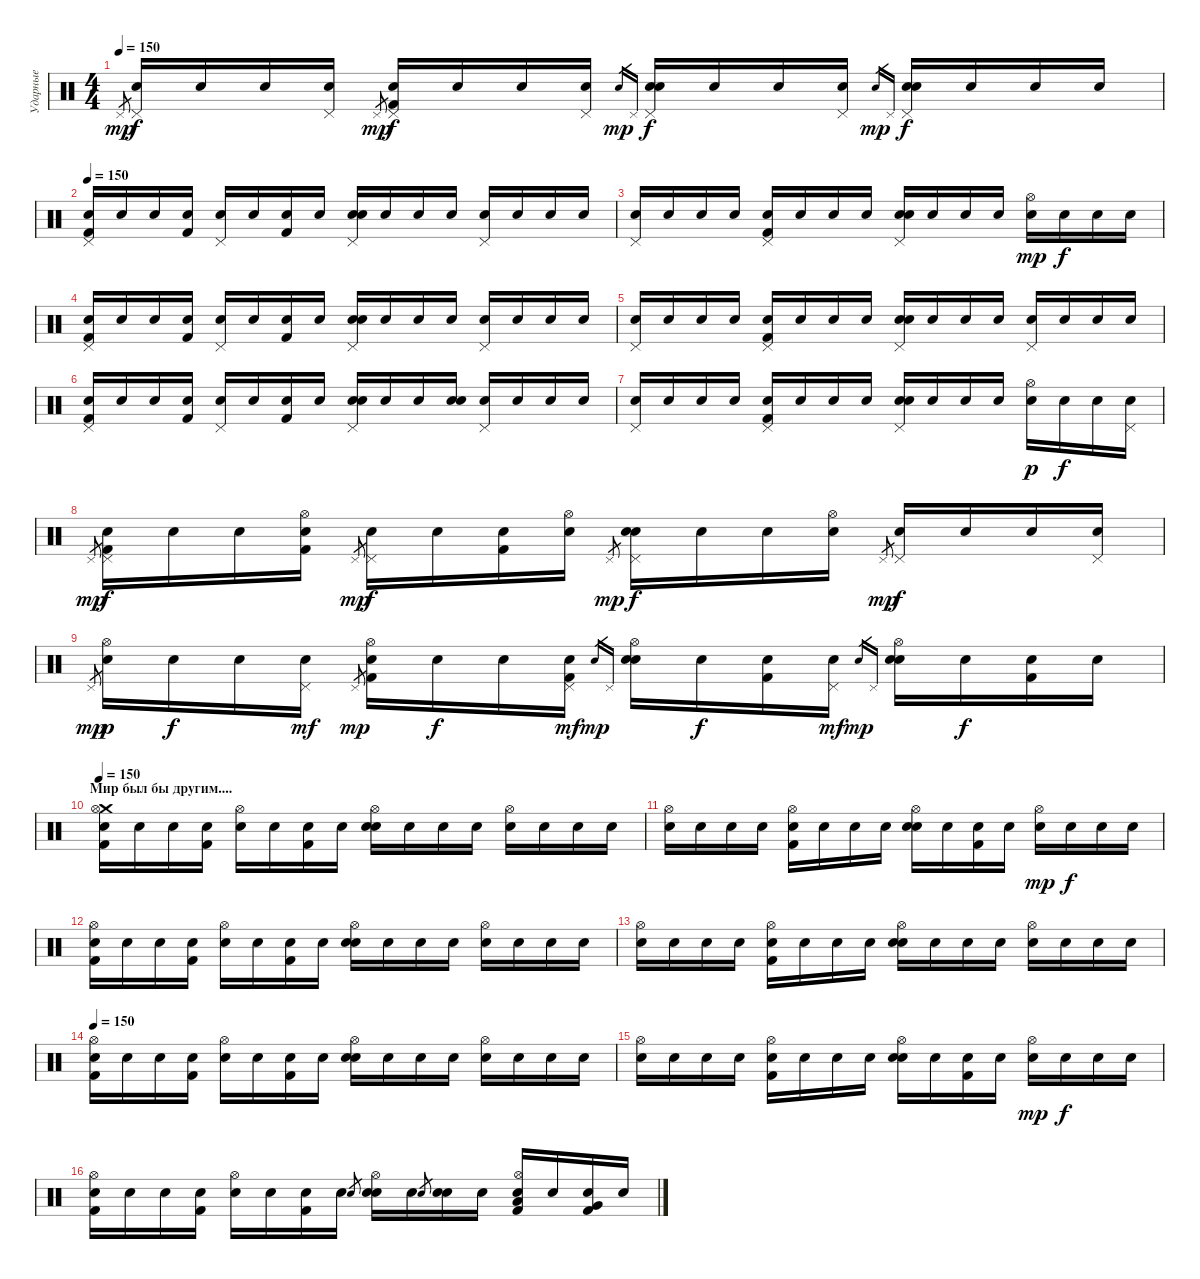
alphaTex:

\track ("Ударные" "Ударные") {instrument percussion}
\staff {score}
\articulation defaults
\ts (4 4)
\tempo 150
\clef neutral
\ks c "Pedal Hi-Hat (hit)".8{gr dy mp}
("Pedal Hi-Hat (hit)" "Snare (hit)"{x}).16{dy f} "Snare (hit)"{x}.16 "Snare (hit)"{x}.16 ("Pedal Hi-Hat (hit)" "Snare (hit)"{x}).16 "Pedal Hi-Hat (hit)".8{gr dy mp} ("Kick (hit) 2" "Pedal Hi-Hat (hit)" "Snare (hit)"{x}).16{dy f} "Snare (hit)"{x}.16 "Snare (hit)"{x}.16 ("Pedal Hi-Hat (hit)" "Snare (hit)"{x}).16 "Snare (hit) 2".16{gr dy mp} "Pedal Hi-Hat (hit)".16{gr} ("Snare (hit) 2" "Pedal Hi-Hat (hit)" "Snare (hit)"{x}).16{dy f} "Snare (hit)"{x}.16 "Snare (hit)"{x}.16 ("Pedal Hi-Hat (hit)" "Snare (hit)"{x}).16 "Snare (hit) 2".16{gr dy mp} "Pedal Hi-Hat (hit)".16{gr} ("Snare (hit) 2" "Pedal Hi-Hat (hit)" "Snare (hit)"{x}).16{dy f} "Snare (hit)"{x}.16 "Snare (hit)"{x}.16 "Snare (hit)"{x}.16 |
\tempo 150
("Kick (hit) 2" "Pedal Hi-Hat (hit)" "Snare (hit)"{x}).16 "Snare (hit)"{x}.16 "Snare (hit)"{x}.16 ("Kick (hit) 2" "Snare (hit)"{x}).16 ("Pedal Hi-Hat (hit)" "Snare (hit)"{x}).16 "Snare (hit)"{x}.16 ("Kick (hit) 2" "Snare (hit)"{x}).16 "Snare (hit)"{x}.16 ("Snare (hit) 2" "Pedal Hi-Hat (hit)" "Snare (hit)"{x}).16 "Snare (hit)"{x}.16 "Snare (hit)"{x}.16 "Snare (hit)"{x}.16 ("Pedal Hi-Hat (hit)" "Snare (hit)"{x}).16 "Snare (hit)"{x}.16 "Snare (hit)"{x}.16 "Snare (hit)"{x}.16 |
("Pedal Hi-Hat (hit)" "Snare (hit)"{x}).16 "Snare (hit)"{x}.16 "Snare (hit)"{x}.16 "Snare (hit)"{x}.16 ("Kick (hit) 2" "Pedal Hi-Hat (hit)" "Snare (hit)"{x}).16 "Snare (hit)"{x}.16 "Snare (hit)"{x}.16 "Snare (hit)"{x}.16 ("Snare (hit) 2" "Pedal Hi-Hat (hit)" "Snare (hit)"{x}).16 "Snare (hit)"{x}.16 "Snare (hit)"{x}.16 "Snare (hit)"{x}.16 ("Hi-Hat (open)" "Snare (hit)"{x}).16{dy mp} "Snare (hit)"{x}.16{dy f} "Snare (hit)"{x}.16 "Snare (hit)"{x}.16 |
("Kick (hit) 2" "Pedal Hi-Hat (hit)" "Snare (hit)"{x}).16 "Snare (hit)"{x}.16 "Snare (hit)"{x}.16 ("Kick (hit) 2" "Snare (hit)"{x}).16 ("Pedal Hi-Hat (hit)" "Snare (hit)"{x}).16 "Snare (hit)"{x}.16 ("Kick (hit) 2" "Snare (hit)"{x}).16 "Snare (hit)"{x}.16 ("Snare (hit) 2" "Pedal Hi-Hat (hit)" "Snare (hit)"{x}).16 "Snare (hit)"{x}.16 "Snare (hit)"{x}.16 "Snare (hit)"{x}.16 ("Pedal Hi-Hat (hit)" "Snare (hit)"{x}).16 "Snare (hit)"{x}.16 "Snare (hit)"{x}.16 "Snare (hit)"{x}.16 |
("Pedal Hi-Hat (hit)" "Snare (hit)"{x}).16 "Snare (hit)"{x}.16 "Snare (hit)"{x}.16 "Snare (hit)"{x}.16 ("Kick (hit) 2" "Pedal Hi-Hat (hit)" "Snare (hit)"{x}).16 "Snare (hit)"{x}.16 "Snare (hit)"{x}.16 "Snare (hit)"{x}.16 ("Snare (hit) 2" "Pedal Hi-Hat (hit)" "Snare (hit)"{x}).16 "Snare (hit)"{x}.16 "Snare (hit)"{x}.16 "Snare (hit)"{x}.16 ("Pedal Hi-Hat (hit)" "Snare (hit)"{x}).16 "Snare (hit)"{x}.16 "Snare (hit)"{x}.16 "Snare (hit)"{x}.16 |
("Kick (hit) 2" "Pedal Hi-Hat (hit)" "Snare (hit)"{x}).16 "Snare (hit)"{x}.16 "Snare (hit)"{x}.16 ("Kick (hit) 2" "Snare (hit)"{x}).16 ("Pedal Hi-Hat (hit)" "Snare (hit)"{x}).16 "Snare (hit)"{x}.16 ("Kick (hit) 2" "Snare (hit)"{x}).16 "Snare (hit)"{x}.16 ("Snare (hit) 2" "Pedal Hi-Hat (hit)" "Snare (hit)"{x}).16 "Snare (hit)"{x}.16 "Snare (hit)"{x}.16 ("Snare (hit) 2" "Snare (hit)"{x}).16 ("Pedal Hi-Hat (hit)" "Snare (hit)"{x}).16 "Snare (hit)"{x}.16 "Snare (hit)"{x}.16 "Snare (hit)"{x}.16 |
("Pedal Hi-Hat (hit)" "Snare (hit)"{x}).16 "Snare (hit)"{x}.16 "Snare (hit)"{x}.16 "Snare (hit)"{x}.16 ("Kick (hit) 2" "Pedal Hi-Hat (hit)" "Snare (hit)"{x}).16 "Snare (hit)"{x}.16 "Snare (hit)"{x}.16 "Snare (hit)"{x}.16 ("Snare (hit) 2" "Pedal Hi-Hat (hit)" "Snare (hit)"{x}).16 "Snare (hit)"{x}.16 "Snare (hit)"{x}.16 "Snare (hit)"{x}.16 ("Hi-Hat (open)" "Snare (hit)"{x}).16{dy p} "Snare (hit)"{x}.16{dy f} "Snare (hit)"{x}.16 ("Pedal Hi-Hat (hit)" "Snare (hit)"{x}).16 |
"Pedal Hi-Hat (hit)".8{gr dy mp} ("Kick (hit) 2" "Pedal Hi-Hat (hit)" "Snare (hit)"{x}).16{dy f} "Snare (hit)"{x}.16 "Snare (hit)"{x}.16 ("Kick (hit) 2" "Hi-Hat (open)" "Snare (hit)"{x}).16 "Pedal Hi-Hat (hit)".8{gr dy mp} ("Pedal Hi-Hat (hit)" "Snare (hit)"{x}).16{dy f} "Snare (hit)"{x}.16 ("Kick (hit) 2" "Snare (hit)"{x}).16 ("Hi-Hat (open)" "Snare (hit)"{x}).16 "Pedal Hi-Hat (hit)".8{gr dy mp} ("Snare (hit) 2" "Pedal Hi-Hat (hit)" "Snare (hit)"{x}).16{dy f} "Snare (hit)"{x}.16 "Snare (hit)"{x}.16 ("Hi-Hat (open)" "Snare (hit)"{x}).16 "Pedal Hi-Hat (hit)".8{gr dy mp} ("Pedal Hi-Hat (hit)" "Snare (hit)"{x}).16{dy f} "Snare (hit)"{x}.16 "Snare (hit)"{x}.16 ("Pedal Hi-Hat (hit)" "Snare (hit)"{x}).16 |
"Pedal Hi-Hat (hit)".8{gr dy mp} ("Hi-Hat (open)" "Snare (hit)"{x}).16{dy p} "Snare (hit)"{x}.16{dy f} "Snare (hit)"{x}.16 ("Pedal Hi-Hat (hit)" "Snare (hit)"{x}).16{dy mf} "Pedal Hi-Hat (hit)".8{gr dy mp} ("Kick (hit) 2" "Hi-Hat (open)" "Snare (hit)"{x}).16 "Snare (hit)"{x}.16{dy f} "Snare (hit)"{x}.16 ("Kick (hit) 2" "Pedal Hi-Hat (hit)" "Snare (hit)"{x}).16{dy mf} "Snare (hit) 2".16{gr dy mp} "Pedal Hi-Hat (hit)".16{gr} ("Snare (hit) 2" "Hi-Hat (open)" "Snare (hit)"{x}).16 "Snare (hit)"{x}.16{dy f} ("Kick (hit) 2" "Snare (hit)"{x}).16 ("Pedal Hi-Hat (hit)" "Snare (hit)"{x}).16{dy mf} "Snare (hit) 2".16{gr dy mp} "Pedal Hi-Hat (hit)".16{gr} ("Snare (hit) 2" "Hi-Hat (open)" "Snare (hit)"{x}).16 "Snare (hit)"{x}.16{dy f} ("Kick (hit) 2" "Snare (hit)"{x}).16 "Snare (hit)"{x}.16 |
\section ("" "Мир был бы другим....")
\tempo 150
("Crash medium (hit)" "Kick (hit) 2" "Hi-Hat (open)" "Snare (hit)"{x}).16 "Snare (hit)"{x}.16 "Snare (hit)"{x}.16 ("Kick (hit) 2" "Snare (hit)"{x}).16 ("Hi-Hat (open)" "Snare (hit)"{x}).16 "Snare (hit)"{x}.16 ("Kick (hit) 2" "Snare (hit)"{x}).16 "Snare (hit)"{x}.16 ("Snare (hit) 2" "Hi-Hat (open)" "Snare (hit)"{x}).16 "Snare (hit)"{x}.16 "Snare (hit)"{x}.16 "Snare (hit)"{x}.16 ("Hi-Hat (open)" "Snare (hit)"{x}).16 "Snare (hit)"{x}.16 "Snare (hit)"{x}.16 "Snare (hit)"{x}.16 |
("Hi-Hat (open)" "Snare (hit)"{x}).16 "Snare (hit)"{x}.16 "Snare (hit)"{x}.16 "Snare (hit)"{x}.16 ("Kick (hit) 2" "Hi-Hat (open)" "Snare (hit)"{x}).16 "Snare (hit)"{x}.16 "Snare (hit)"{x}.16 "Snare (hit)"{x}.16 ("Snare (hit) 2" "Hi-Hat (open)" "Snare (hit)"{x}).16 "Snare (hit)"{x}.16 ("Kick (hit) 2" "Snare (hit)"{x}).16 "Snare (hit)"{x}.16 ("Hi-Hat (open)" "Snare (hit)"{x}).16{dy mp} "Snare (hit)"{x}.16{dy f} "Snare (hit)"{x}.16 "Snare (hit)"{x}.16 |
("Kick (hit) 2" "Hi-Hat (open)" "Snare (hit)"{x}).16 "Snare (hit)"{x}.16 "Snare (hit)"{x}.16 ("Kick (hit) 2" "Snare (hit)"{x}).16 ("Hi-Hat (open)" "Snare (hit)"{x}).16 "Snare (hit)"{x}.16 ("Kick (hit) 2" "Snare (hit)"{x}).16 "Snare (hit)"{x}.16 ("Snare (hit) 2" "Hi-Hat (open)" "Snare (hit)"{x}).16 "Snare (hit)"{x}.16 "Snare (hit)"{x}.16 "Snare (hit)"{x}.16 ("Hi-Hat (open)" "Snare (hit)"{x}).16 "Snare (hit)"{x}.16 "Snare (hit)"{x}.16 "Snare (hit)"{x}.16 |
("Hi-Hat (open)" "Snare (hit)"{x}).16 "Snare (hit)"{x}.16 "Snare (hit)"{x}.16 "Snare (hit)"{x}.16 ("Kick (hit) 2" "Hi-Hat (open)" "Snare (hit)"{x}).16 "Snare (hit)"{x}.16 "Snare (hit)"{x}.16 "Snare (hit)"{x}.16 ("Snare (hit) 2" "Hi-Hat (open)" "Snare (hit)"{x}).16 "Snare (hit)"{x}.16 "Snare (hit)"{x}.16 "Snare (hit)"{x}.16 ("Hi-Hat (open)" "Snare (hit)"{x}).16 "Snare (hit)"{x}.16 "Snare (hit)"{x}.16 "Snare (hit)"{x}.16 |
\tempo 150
("Kick (hit) 2" "Hi-Hat (open)" "Snare (hit)"{x}).16 "Snare (hit)"{x}.16 "Snare (hit)"{x}.16 ("Kick (hit) 2" "Snare (hit)"{x}).16 ("Hi-Hat (open)" "Snare (hit)"{x}).16 "Snare (hit)"{x}.16 ("Kick (hit) 2" "Snare (hit)"{x}).16 "Snare (hit)"{x}.16 ("Snare (hit) 2" "Hi-Hat (open)" "Snare (hit)"{x}).16 "Snare (hit)"{x}.16 "Snare (hit)"{x}.16 "Snare (hit)"{x}.16 ("Hi-Hat (open)" "Snare (hit)"{x}).16 "Snare (hit)"{x}.16 "Snare (hit)"{x}.16 "Snare (hit)"{x}.16 |
("Hi-Hat (open)" "Snare (hit)"{x}).16 "Snare (hit)"{x}.16 "Snare (hit)"{x}.16 "Snare (hit)"{x}.16 ("Kick (hit) 2" "Hi-Hat (open)" "Snare (hit)"{x}).16 "Snare (hit)"{x}.16 "Snare (hit)"{x}.16 "Snare (hit)"{x}.16 ("Snare (hit) 2" "Hi-Hat (open)" "Snare (hit)"{x}).16 "Snare (hit)"{x}.16 ("Kick (hit) 2" "Snare (hit)"{x}).16 "Snare (hit)"{x}.16 ("Hi-Hat (open)" "Snare (hit)"{x}).16{dy mp} "Snare (hit)"{x}.16{dy f} "Snare (hit)"{x}.16 "Snare (hit)"{x}.16 |
("Kick (hit) 2" "Hi-Hat (open)" "Snare (hit)"{x}).16 "Snare (hit)"{x}.16 "Snare (hit)"{x}.16 ("Kick (hit) 2" "Snare (hit)"{x}).16 ("Hi-Hat (open)" "Snare (hit)"{x}).16 "Snare (hit)"{x}.16 ("Kick (hit) 2" "Snare (hit)"{x}).16 "Snare (hit)"{x}.16 "Snare (hit) 2".8{gr} ("Snare (hit) 2" "Hi-Hat (open)" "Snare (hit)"{x}).16 "Snare (hit)"{x}.16 "Snare (hit) 2".8{gr} ("Snare (hit) 2" "Snare (hit)"{x}).16 "Snare (hit)"{x}.16 ("Low Tom (hit)" "Kick (hit) 2" "Hi-Hat (open)" "Snare (hit)"{x}).16 "Snare (hit)"{x}.16 ("Very Low Tom (hit)" "Kick (hit) 2" "Snare (hit)"{x}).16 "Snare (hit)"{x}.16
